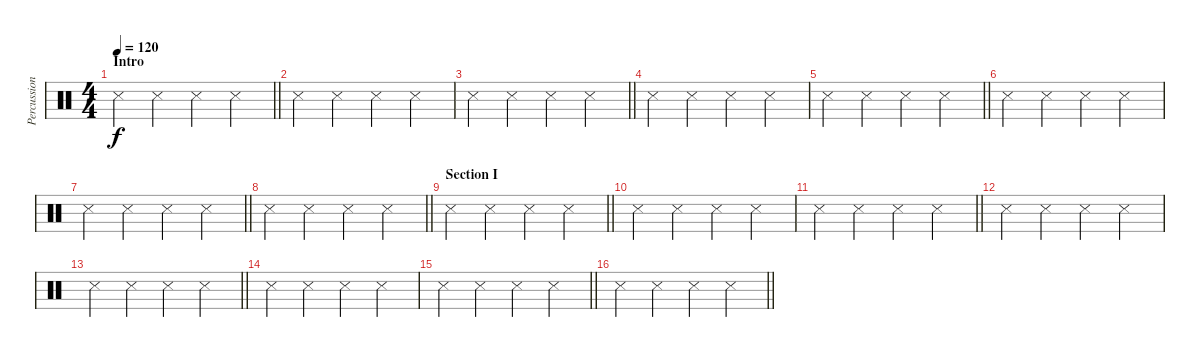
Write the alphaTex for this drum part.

\track ("Percussion" "Percussion") {instrument percussion}
\staff {score}
\articulation defaults
\ts (4 4)
\section ("" "Intro")
\tempo 120
\clef neutral
\barLineRight lightlight
\ks c "Metronome (hit)".4{dy f} "Metronome (hit)".4 "Metronome (hit)".4 "Metronome (hit)".4
|
"Metronome (hit)".4 "Metronome (hit)".4 "Metronome (hit)".4 "Metronome (hit)".4 |
\barLineRight lightlight "Metronome (hit)".4 "Metronome (hit)".4 "Metronome (hit)".4 "Metronome (hit)".4
|
"Metronome (hit)".4 "Metronome (hit)".4 "Metronome (hit)".4 "Metronome (hit)".4 |
\barLineRight lightlight "Metronome (hit)".4 "Metronome (hit)".4 "Metronome (hit)".4 "Metronome (hit)".4
|
"Metronome (hit)".4 "Metronome (hit)".4 "Metronome (hit)".4 "Metronome (hit)".4 |
\barLineRight lightlight "Metronome (hit)".4 "Metronome (hit)".4 "Metronome (hit)".4 "Metronome (hit)".4
|
\barLineRight lightlight "Metronome (hit)".4 "Metronome (hit)".4 "Metronome (hit)".4 "Metronome (hit)".4
|
\section ("" "Section I")
\barLineRight lightlight "Metronome (hit)".4 "Metronome (hit)".4 "Metronome (hit)".4 "Metronome (hit)".4
|
"Metronome (hit)".4 "Metronome (hit)".4 "Metronome (hit)".4 "Metronome (hit)".4 |
\barLineRight lightlight "Metronome (hit)".4 "Metronome (hit)".4 "Metronome (hit)".4 "Metronome (hit)".4
|
"Metronome (hit)".4 "Metronome (hit)".4 "Metronome (hit)".4 "Metronome (hit)".4 |
\barLineRight lightlight "Metronome (hit)".4 "Metronome (hit)".4 "Metronome (hit)".4 "Metronome (hit)".4
|
"Metronome (hit)".4 "Metronome (hit)".4 "Metronome (hit)".4 "Metronome (hit)".4 |
\barLineRight lightlight "Metronome (hit)".4 "Metronome (hit)".4 "Metronome (hit)".4 "Metronome (hit)".4
|
\barLineRight lightlight "Metronome (hit)".4 "Metronome (hit)".4 "Metronome (hit)".4 "Metronome (hit)".4
